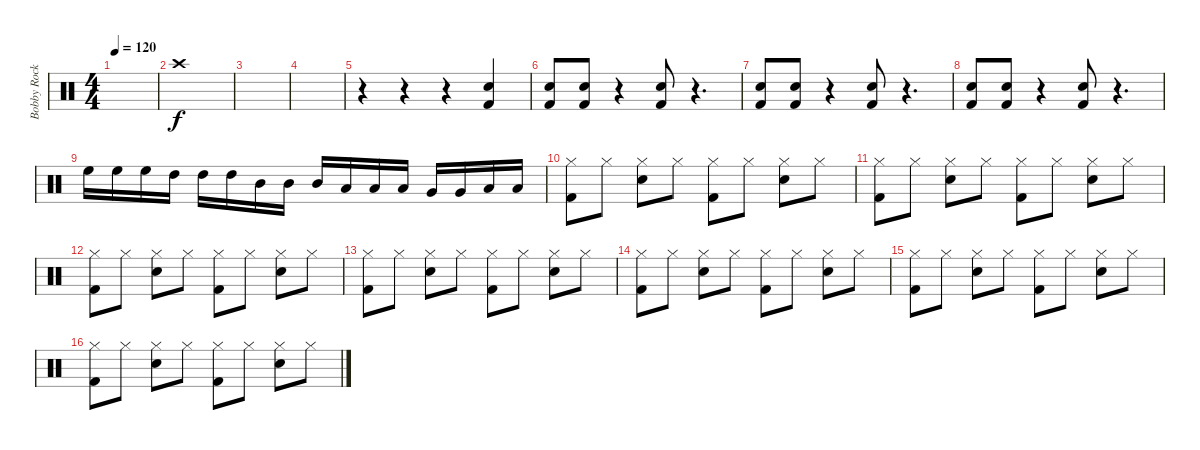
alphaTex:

\track ("Bobby Rock" "Bobby Rock") {instrument percussion}
\staff {score}
\articulation defaults
\ts (4 4)
\tempo 120
\clef neutral
\ks c
|
"Crash high (hit)".1 |
|
|
r.4 r.4 r.4 ("Snare (hit) 2" "Kick (hit) 2").4 |
("Snare (hit) 2" "Kick (hit) 2").8 ("Snare (hit) 2" "Kick (hit) 2").8 r.4 ("Snare (hit) 2" "Kick (hit) 2").8 r.4{d} |
("Snare (hit) 2" "Kick (hit) 2").8 ("Snare (hit) 2" "Kick (hit) 2").8 r.4 ("Snare (hit) 2" "Kick (hit) 2").8 r.4{d} |
("Snare (hit) 2" "Kick (hit) 2").8 ("Snare (hit) 2" "Kick (hit) 2").8 r.4 ("Snare (hit) 2" "Kick (hit) 2").8 r.4{d} |
"High Floor Tom (hit)".16 "High Floor Tom (hit)".16 "High Floor Tom (hit)".16 "High Tom (hit)".16 "High Tom (hit)".16 "High Tom (hit)".16 "Mid Tom (hit)".16 "Mid Tom (hit)".16 "Mid Tom (hit)".16 "Low Tom (hit)".16 "Low Tom (hit)".16 "Low Tom (hit)".16 "Very Low Tom (hit)".16 "Very Low Tom (hit)".16 "Low Floor Tom (hit)".16 "Low Floor Tom (hit)".16 |
("Kick (hit) 2" "Hi-Hat (closed)").8 "Hi-Hat (closed)".8 ("Snare (hit) 2" "Hi-Hat (closed)").8 "Hi-Hat (closed)".8 ("Kick (hit) 2" "Hi-Hat (closed)").8 "Hi-Hat (closed)".8 ("Snare (hit) 2" "Hi-Hat (closed)").8 "Hi-Hat (closed)".8 |
("Kick (hit) 2" "Hi-Hat (closed)").8 "Hi-Hat (closed)".8 ("Snare (hit) 2" "Hi-Hat (closed)").8 "Hi-Hat (closed)".8 ("Kick (hit) 2" "Hi-Hat (closed)").8 "Hi-Hat (closed)".8 ("Snare (hit) 2" "Hi-Hat (closed)").8 "Hi-Hat (closed)".8 |
("Kick (hit) 2" "Hi-Hat (closed)").8 "Hi-Hat (closed)".8 ("Snare (hit) 2" "Hi-Hat (closed)").8 "Hi-Hat (closed)".8 ("Kick (hit) 2" "Hi-Hat (closed)").8 "Hi-Hat (closed)".8 ("Snare (hit) 2" "Hi-Hat (closed)").8 "Hi-Hat (closed)".8 |
("Kick (hit) 2" "Hi-Hat (closed)").8 "Hi-Hat (closed)".8 ("Snare (hit) 2" "Hi-Hat (closed)").8 "Hi-Hat (closed)".8 ("Kick (hit) 2" "Hi-Hat (closed)").8 "Hi-Hat (closed)".8 ("Snare (hit) 2" "Hi-Hat (closed)").8 "Hi-Hat (closed)".8 |
("Kick (hit) 2" "Hi-Hat (closed)").8 "Hi-Hat (closed)".8 ("Snare (hit) 2" "Hi-Hat (closed)").8 "Hi-Hat (closed)".8 ("Kick (hit) 2" "Hi-Hat (closed)").8 "Hi-Hat (closed)".8 ("Snare (hit) 2" "Hi-Hat (closed)").8 "Hi-Hat (closed)".8 |
("Kick (hit) 2" "Hi-Hat (closed)").8 "Hi-Hat (closed)".8 ("Snare (hit) 2" "Hi-Hat (closed)").8 "Hi-Hat (closed)".8 ("Kick (hit) 2" "Hi-Hat (closed)").8 "Hi-Hat (closed)".8 ("Snare (hit) 2" "Hi-Hat (closed)").8 "Hi-Hat (closed)".8 |
("Kick (hit) 2" "Hi-Hat (closed)").8 "Hi-Hat (closed)".8 ("Snare (hit) 2" "Hi-Hat (closed)").8 "Hi-Hat (closed)".8 ("Kick (hit) 2" "Hi-Hat (closed)").8 "Hi-Hat (closed)".8 ("Snare (hit) 2" "Hi-Hat (closed)").8 "Hi-Hat (closed)".8
